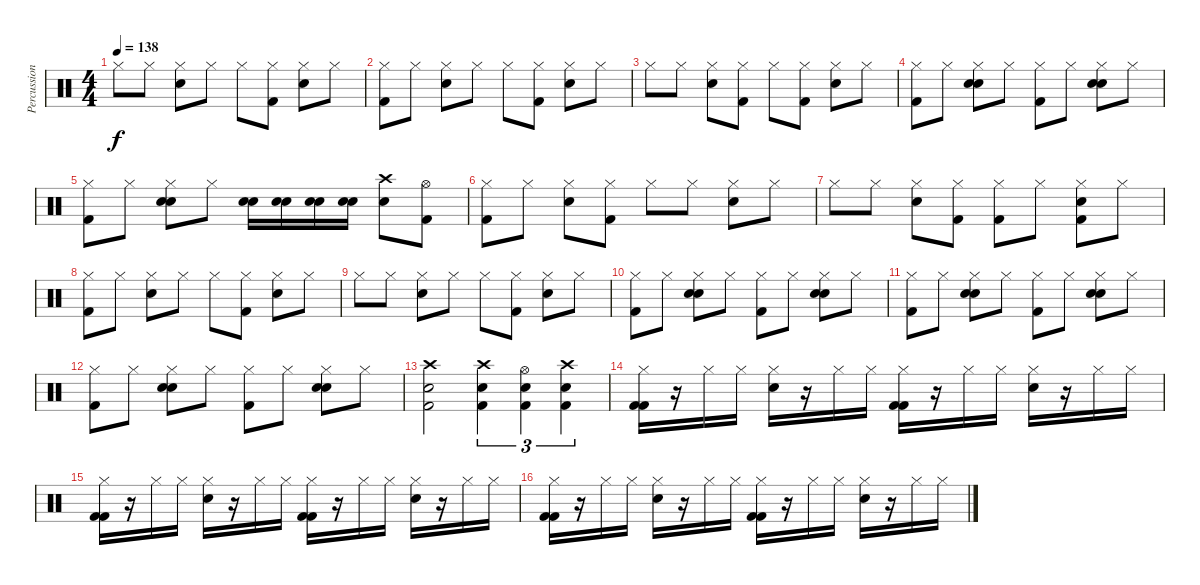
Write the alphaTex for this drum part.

\track ("Percussion" "Percussion") {instrument percussion}
\staff {score}
\articulation defaults
\ts (4 4)
\tempo 138
\clef neutral
\ks c "Hi-Hat (closed)".8{dy f} "Hi-Hat (closed)".8
("Hi-Hat (closed)" "Snare (hit) 2").8 "Hi-Hat (closed)".8 "Hi-Hat (closed)".8 ("Hi-Hat (closed)" "Kick (hit) 2").8 ("Hi-Hat (closed)" "Snare (hit) 2").8 "Hi-Hat (closed)".8 |
("Hi-Hat (closed)" "Kick (hit) 2").8 "Hi-Hat (closed)".8 ("Hi-Hat (closed)" "Snare (hit) 2").8 "Hi-Hat (closed)".8 "Hi-Hat (closed)".8 ("Hi-Hat (closed)" "Kick (hit) 2").8 ("Hi-Hat (closed)" "Snare (hit) 2").8 "Hi-Hat (closed)".8 |
"Hi-Hat (closed)".8 "Hi-Hat (closed)".8 ("Hi-Hat (closed)" "Snare (hit) 2").8 ("Hi-Hat (closed)" "Kick (hit) 2").8 "Hi-Hat (closed)".8 ("Hi-Hat (closed)" "Kick (hit) 2").8 ("Hi-Hat (closed)" "Snare (hit) 2").8 "Hi-Hat (closed)".8 |
("Hi-Hat (closed)" "Kick (hit) 2").8 "Hi-Hat (closed)".8 ("Hi-Hat (closed)" "Snare (hit) 2" "Snare (hit) 2").8 "Hi-Hat (closed)".8 ("Hi-Hat (closed)" "Kick (hit) 2").8 "Hi-Hat (closed)".8 ("Hi-Hat (closed)" "Snare (hit) 2" "Snare (hit) 2").8 "Hi-Hat (closed)".8 |
("Hi-Hat (closed)" "Kick (hit) 2").8 "Hi-Hat (closed)".8 ("Hi-Hat (closed)" "Snare (hit) 2" "Snare (hit) 2").8 "Hi-Hat (closed)".8 ("Snare (hit) 2" "Snare (hit) 2").16 ("Snare (hit) 2" "Snare (hit) 2").16 ("Snare (hit) 2" "Snare (hit) 2").16 ("Snare (hit) 2" "Snare (hit) 2").16 ("Crash high (hit)" "Snare (hit) 2").8 ("Hi-Hat (open)" "Kick (hit) 2").8 |
("Hi-Hat (closed)" "Kick (hit) 2").8 "Hi-Hat (closed)".8 ("Hi-Hat (closed)" "Snare (hit) 2").8 ("Hi-Hat (closed)" "Kick (hit) 2").8 "Hi-Hat (closed)".8 "Hi-Hat (closed)".8 ("Hi-Hat (closed)" "Snare (hit) 2").8 "Hi-Hat (closed)".8 |
"Hi-Hat (closed)".8 "Hi-Hat (closed)".8 ("Hi-Hat (closed)" "Snare (hit) 2").8 ("Hi-Hat (closed)" "Kick (hit) 2").8 ("Hi-Hat (closed)" "Kick (hit) 2").8 "Hi-Hat (closed)".8 ("Hi-Hat (closed)" "Snare (hit) 2" "Kick (hit) 2").8 "Hi-Hat (closed)".8 |
("Hi-Hat (closed)" "Kick (hit) 2").8 "Hi-Hat (closed)".8 ("Hi-Hat (closed)" "Snare (hit) 2").8 "Hi-Hat (closed)".8 "Hi-Hat (closed)".8 ("Hi-Hat (closed)" "Kick (hit) 2").8 ("Hi-Hat (closed)" "Snare (hit) 2").8 "Hi-Hat (closed)".8 |
"Hi-Hat (closed)".8 "Hi-Hat (closed)".8 ("Hi-Hat (closed)" "Snare (hit) 2").8 "Hi-Hat (closed)".8 "Hi-Hat (closed)".8 ("Hi-Hat (closed)" "Kick (hit) 2").8 ("Hi-Hat (closed)" "Snare (hit) 2").8 "Hi-Hat (closed)".8 |
("Hi-Hat (closed)" "Kick (hit) 2").8 "Hi-Hat (closed)".8 ("Hi-Hat (closed)" "Snare (hit) 2" "Snare (hit) 2").8 "Hi-Hat (closed)".8 ("Hi-Hat (closed)" "Kick (hit) 2").8 "Hi-Hat (closed)".8 ("Hi-Hat (closed)" "Snare (hit) 2" "Snare (hit) 2").8 "Hi-Hat (closed)".8 |
("Hi-Hat (closed)" "Kick (hit) 2").8 "Hi-Hat (closed)".8 ("Hi-Hat (closed)" "Snare (hit) 2" "Snare (hit) 2").8 "Hi-Hat (closed)".8 ("Hi-Hat (closed)" "Kick (hit) 2").8 "Hi-Hat (closed)".8 ("Hi-Hat (closed)" "Snare (hit) 2" "Snare (hit) 2").8 "Hi-Hat (closed)".8 |
("Hi-Hat (closed)" "Kick (hit) 2").8 "Hi-Hat (closed)".8 ("Hi-Hat (closed)" "Snare (hit) 2" "Snare (hit) 2").8 "Hi-Hat (closed)".8 ("Hi-Hat (closed)" "Kick (hit) 2").8 "Hi-Hat (closed)".8 ("Hi-Hat (closed)" "Snare (hit) 2" "Snare (hit) 2").8 "Hi-Hat (closed)".8 |
("Crash high (hit)" "Snare (hit) 2" "Kick (hit) 2").2 ("Crash high (hit)" "Snare (hit) 2" "Kick (hit) 2").4{tu (3 2)} ("Hi-Hat (open)" "Snare (hit) 2" "Kick (hit) 2").4{tu (3 2)} ("Crash high (hit)" "Snare (hit) 2" "Kick (hit) 2").4{tu (3 2)} |
("Hi-Hat (closed)" "Kick (hit) 2" "Kick (hit) 2").16 r.16 "Hi-Hat (closed)".16 "Hi-Hat (closed)".16 ("Hi-Hat (closed)" "Snare (hit) 2").16 r.16 "Hi-Hat (closed)".16 "Hi-Hat (closed)".16 ("Hi-Hat (closed)" "Kick (hit) 2" "Kick (hit) 2").16 r.16 "Hi-Hat (closed)".16 "Hi-Hat (closed)".16 ("Hi-Hat (closed)" "Snare (hit) 2").16 r.16 "Hi-Hat (closed)".16 "Hi-Hat (closed)".16 |
("Hi-Hat (closed)" "Kick (hit) 2" "Kick (hit) 2").16 r.16 "Hi-Hat (closed)".16 "Hi-Hat (closed)".16 ("Hi-Hat (closed)" "Snare (hit) 2").16 r.16 "Hi-Hat (closed)".16 "Hi-Hat (closed)".16 ("Hi-Hat (closed)" "Kick (hit) 2" "Kick (hit) 2").16 r.16 "Hi-Hat (closed)".16 "Hi-Hat (closed)".16 ("Hi-Hat (closed)" "Snare (hit) 2").16 r.16 "Hi-Hat (closed)".16 "Hi-Hat (closed)".16 |
("Hi-Hat (closed)" "Kick (hit) 2" "Kick (hit) 2").16 r.16 "Hi-Hat (closed)".16 "Hi-Hat (closed)".16 ("Hi-Hat (closed)" "Snare (hit) 2").16 r.16 "Hi-Hat (closed)".16 "Hi-Hat (closed)".16 ("Hi-Hat (closed)" "Kick (hit) 2" "Kick (hit) 2").16 r.16 "Hi-Hat (closed)".16 "Hi-Hat (closed)".16 ("Hi-Hat (closed)" "Snare (hit) 2").16 r.16 "Hi-Hat (closed)".16 "Hi-Hat (closed)".16
